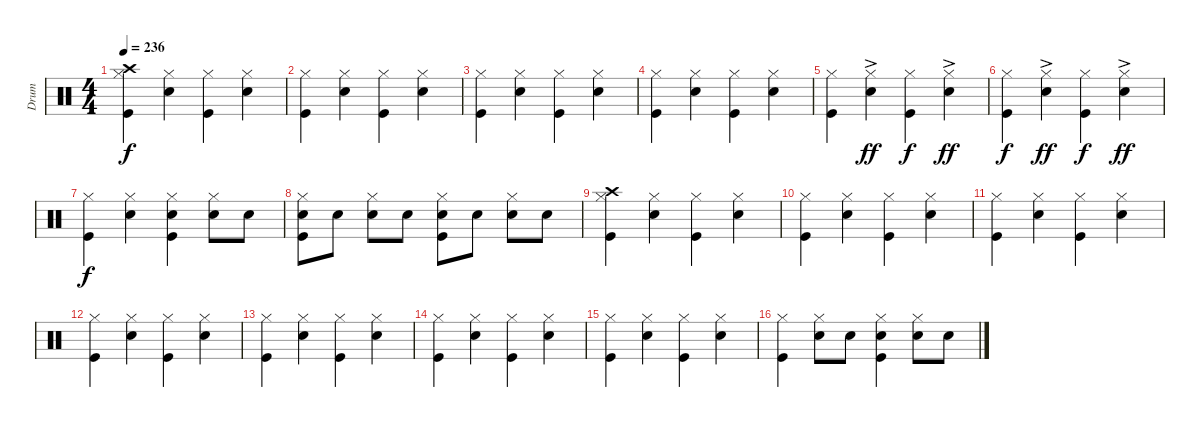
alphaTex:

\track ("Drum" "Drum") {instrument percussion}
\staff {score}
\articulation defaults
\ts (4 4)
\tempo 236
\clef neutral
\ks c
("Crash high (hit)" "Hi-Hat (closed)" "Kick (hit)").4{dy f} ("Hi-Hat (closed)" "Snare (hit) 2").4 ("Hi-Hat (closed)" "Kick (hit)").4 ("Hi-Hat (closed)" "Snare (hit) 2").4 |
("Hi-Hat (closed)" "Kick (hit)").4 ("Hi-Hat (closed)" "Snare (hit) 2").4 ("Hi-Hat (closed)" "Kick (hit)").4 ("Hi-Hat (closed)" "Snare (hit) 2").4 |
("Hi-Hat (closed)" "Kick (hit)").4 ("Hi-Hat (closed)" "Snare (hit) 2").4 ("Hi-Hat (closed)" "Kick (hit)").4 ("Hi-Hat (closed)" "Snare (hit) 2").4 |
("Hi-Hat (closed)" "Kick (hit)").4 ("Hi-Hat (closed)" "Snare (hit) 2").4 ("Hi-Hat (closed)" "Kick (hit)").4 ("Hi-Hat (closed)" "Snare (hit) 2").4 |
("Hi-Hat (closed)" "Kick (hit)").4 ("Hi-Hat (closed)" "Snare (hit) 2"{ac}).4{dy ff} ("Hi-Hat (closed)" "Kick (hit)").4{dy f} ("Hi-Hat (closed)" "Snare (hit) 2"{ac}).4{dy ff} |
("Hi-Hat (closed)" "Kick (hit)").4{dy f} ("Hi-Hat (closed)" "Snare (hit) 2"{ac}).4{dy ff} ("Hi-Hat (closed)" "Kick (hit)").4{dy f} ("Hi-Hat (closed)" "Snare (hit) 2"{ac}).4{dy ff} |
("Hi-Hat (closed)" "Kick (hit)").4{dy f} ("Hi-Hat (closed)" "Snare (hit) 2").4 ("Hi-Hat (closed)" "Snare (hit) 2" "Kick (hit)").4 ("Hi-Hat (closed)" "Snare (hit) 2").8 "Snare (hit) 2".8 |
("Hi-Hat (closed)" "Snare (hit) 2" "Kick (hit)").8 "Snare (hit) 2".8 ("Hi-Hat (closed)" "Snare (hit) 2").8 "Snare (hit) 2".8 ("Hi-Hat (closed)" "Snare (hit) 2" "Kick (hit)").8 "Snare (hit) 2".8 ("Hi-Hat (closed)" "Snare (hit) 2").8 "Snare (hit) 2".8 |
("Crash high (hit)" "Hi-Hat (closed)" "Kick (hit)").4 ("Hi-Hat (closed)" "Snare (hit) 2").4 ("Hi-Hat (closed)" "Kick (hit)").4 ("Hi-Hat (closed)" "Snare (hit) 2").4 |
("Hi-Hat (closed)" "Kick (hit)").4 ("Hi-Hat (closed)" "Snare (hit) 2").4 ("Hi-Hat (closed)" "Kick (hit)").4 ("Hi-Hat (closed)" "Snare (hit) 2").4 |
("Hi-Hat (closed)" "Kick (hit)").4 ("Hi-Hat (closed)" "Snare (hit) 2").4 ("Hi-Hat (closed)" "Kick (hit)").4 ("Hi-Hat (closed)" "Snare (hit) 2").4 |
("Hi-Hat (closed)" "Kick (hit)").4 ("Hi-Hat (closed)" "Snare (hit) 2").4 ("Hi-Hat (closed)" "Kick (hit)").4 ("Hi-Hat (closed)" "Snare (hit) 2").4 |
("Hi-Hat (closed)" "Kick (hit)").4 ("Hi-Hat (closed)" "Snare (hit) 2").4 ("Hi-Hat (closed)" "Kick (hit)").4 ("Hi-Hat (closed)" "Snare (hit) 2").4 |
("Hi-Hat (closed)" "Kick (hit)").4 ("Hi-Hat (closed)" "Snare (hit) 2").4 ("Hi-Hat (closed)" "Kick (hit)").4 ("Hi-Hat (closed)" "Snare (hit) 2").4 |
("Hi-Hat (closed)" "Kick (hit)").4 ("Hi-Hat (closed)" "Snare (hit) 2").4 ("Hi-Hat (closed)" "Kick (hit)").4 ("Hi-Hat (closed)" "Snare (hit) 2").4 |
("Hi-Hat (closed)" "Kick (hit)").4 ("Hi-Hat (closed)" "Snare (hit) 2").8 "Snare (hit) 2".8 ("Hi-Hat (closed)" "Snare (hit) 2" "Kick (hit)").4 ("Hi-Hat (closed)" "Snare (hit) 2").8 "Snare (hit) 2".8
